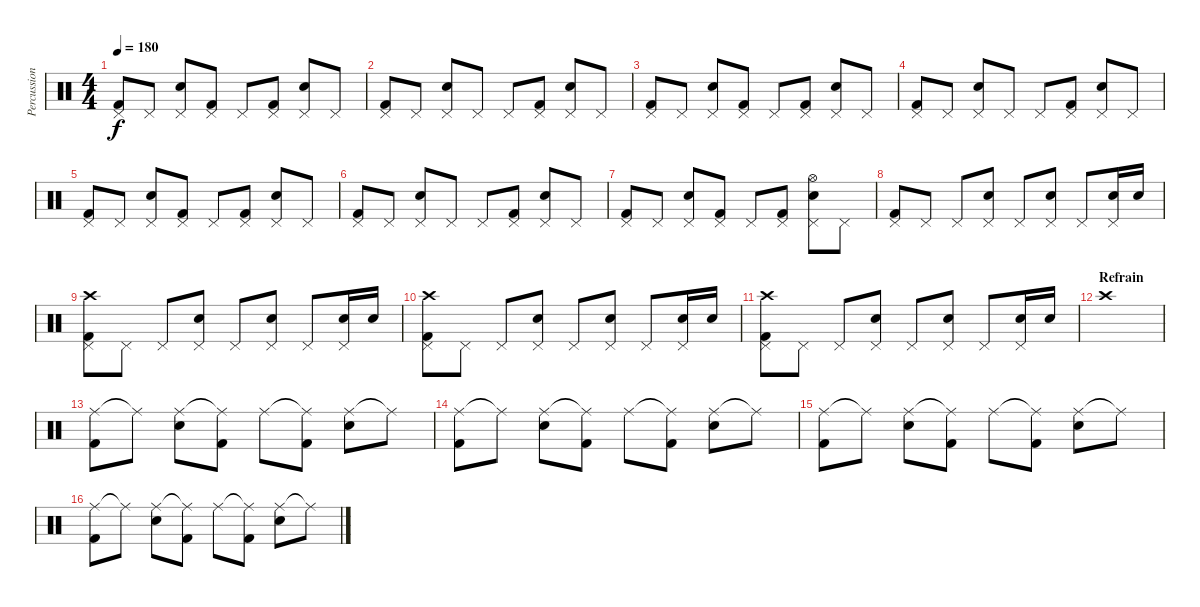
\track ("Percussions" "Percussion") {instrument percussion}
\staff {score}
\articulation defaults
\ts (4 4)
\tempo 180
\clef neutral
\ks c
("Pedal Hi-Hat (hit)" "Kick (hit) 2").8{dy f} "Pedal Hi-Hat (hit)".8 ("Pedal Hi-Hat (hit)" "Electric Snare (hit)").8 ("Pedal Hi-Hat (hit)" "Kick (hit) 2").8 "Pedal Hi-Hat (hit)".8 ("Pedal Hi-Hat (hit)" "Kick (hit) 2").8 ("Pedal Hi-Hat (hit)" "Electric Snare (hit)").8 "Pedal Hi-Hat (hit)".8 |
("Pedal Hi-Hat (hit)" "Kick (hit) 2").8 "Pedal Hi-Hat (hit)".8 ("Pedal Hi-Hat (hit)" "Electric Snare (hit)").8 "Pedal Hi-Hat (hit)".8 "Pedal Hi-Hat (hit)".8 ("Pedal Hi-Hat (hit)" "Kick (hit) 2").8 ("Pedal Hi-Hat (hit)" "Electric Snare (hit)").8 "Pedal Hi-Hat (hit)".8 |
("Pedal Hi-Hat (hit)" "Kick (hit) 2").8 "Pedal Hi-Hat (hit)".8 ("Pedal Hi-Hat (hit)" "Electric Snare (hit)").8 ("Pedal Hi-Hat (hit)" "Kick (hit) 2").8 "Pedal Hi-Hat (hit)".8 ("Pedal Hi-Hat (hit)" "Kick (hit) 2").8 ("Pedal Hi-Hat (hit)" "Electric Snare (hit)").8 "Pedal Hi-Hat (hit)".8 |
("Pedal Hi-Hat (hit)" "Kick (hit) 2").8 "Pedal Hi-Hat (hit)".8 ("Pedal Hi-Hat (hit)" "Electric Snare (hit)").8 "Pedal Hi-Hat (hit)".8 "Pedal Hi-Hat (hit)".8 ("Pedal Hi-Hat (hit)" "Kick (hit) 2").8 ("Pedal Hi-Hat (hit)" "Electric Snare (hit)").8 "Pedal Hi-Hat (hit)".8 |
("Pedal Hi-Hat (hit)" "Kick (hit) 2").8 "Pedal Hi-Hat (hit)".8 ("Pedal Hi-Hat (hit)" "Electric Snare (hit)").8 ("Pedal Hi-Hat (hit)" "Kick (hit) 2").8 "Pedal Hi-Hat (hit)".8 ("Pedal Hi-Hat (hit)" "Kick (hit) 2").8 ("Pedal Hi-Hat (hit)" "Electric Snare (hit)").8 "Pedal Hi-Hat (hit)".8 |
("Pedal Hi-Hat (hit)" "Kick (hit) 2").8 "Pedal Hi-Hat (hit)".8 ("Pedal Hi-Hat (hit)" "Electric Snare (hit)").8 "Pedal Hi-Hat (hit)".8 "Pedal Hi-Hat (hit)".8 ("Pedal Hi-Hat (hit)" "Kick (hit) 2").8 ("Pedal Hi-Hat (hit)" "Electric Snare (hit)").8 "Pedal Hi-Hat (hit)".8 |
("Pedal Hi-Hat (hit)" "Kick (hit) 2").8 "Pedal Hi-Hat (hit)".8 ("Pedal Hi-Hat (hit)" "Electric Snare (hit)").8 ("Pedal Hi-Hat (hit)" "Kick (hit) 2").8 "Pedal Hi-Hat (hit)".8 ("Pedal Hi-Hat (hit)" "Kick (hit) 2").8 ("Pedal Hi-Hat (hit)" "Hi-Hat (open)" "Electric Snare (hit)").8 "Pedal Hi-Hat (hit)".8 |
("Pedal Hi-Hat (hit)" "Kick (hit) 2").8 "Pedal Hi-Hat (hit)".8 "Pedal Hi-Hat (hit)".8 ("Pedal Hi-Hat (hit)" "Electric Snare (hit)").8 "Pedal Hi-Hat (hit)".8 ("Pedal Hi-Hat (hit)" "Electric Snare (hit)").8 "Pedal Hi-Hat (hit)".8 ("Pedal Hi-Hat (hit)" "Electric Snare (hit)").16 "Electric Snare (hit)".16 |
("Pedal Hi-Hat (hit)" "Crash high (hit)" "Kick (hit) 2").8 "Pedal Hi-Hat (hit)".8 "Pedal Hi-Hat (hit)".8 ("Pedal Hi-Hat (hit)" "Electric Snare (hit)").8 "Pedal Hi-Hat (hit)".8 ("Pedal Hi-Hat (hit)" "Electric Snare (hit)").8 "Pedal Hi-Hat (hit)".8 ("Pedal Hi-Hat (hit)" "Electric Snare (hit)").16 "Electric Snare (hit)".16 |
("Pedal Hi-Hat (hit)" "Crash high (hit)" "Kick (hit) 2").8 "Pedal Hi-Hat (hit)".8 "Pedal Hi-Hat (hit)".8 ("Pedal Hi-Hat (hit)" "Electric Snare (hit)").8 "Pedal Hi-Hat (hit)".8 ("Pedal Hi-Hat (hit)" "Electric Snare (hit)").8 "Pedal Hi-Hat (hit)".8 ("Pedal Hi-Hat (hit)" "Electric Snare (hit)").16 "Electric Snare (hit)".16 |
("Pedal Hi-Hat (hit)" "Crash high (hit)" "Kick (hit) 2").8 "Pedal Hi-Hat (hit)".8 "Pedal Hi-Hat (hit)".8 ("Pedal Hi-Hat (hit)" "Electric Snare (hit)").8 "Pedal Hi-Hat (hit)".8 ("Pedal Hi-Hat (hit)" "Electric Snare (hit)").8 "Pedal Hi-Hat (hit)".8 ("Pedal Hi-Hat (hit)" "Electric Snare (hit)").16 "Electric Snare (hit)".16 |
\section ("" "Refrain")
"Crash high (hit)".1 |
("Ride (middle)" "Kick (hit) 2").8 "Ride (middle)"{t}.8 ("Ride (middle)" "Electric Snare (hit)").8 ("Ride (middle)"{t} "Kick (hit) 2").8 "Ride (middle)".8 ("Ride (middle)"{t} "Kick (hit) 2").8 ("Ride (middle)" "Electric Snare (hit)").8 "Ride (middle)"{t}.8 |
("Ride (middle)" "Kick (hit) 2").8 "Ride (middle)"{t}.8 ("Ride (middle)" "Electric Snare (hit)").8 ("Ride (middle)"{t} "Kick (hit) 2").8 "Ride (middle)".8 ("Ride (middle)"{t} "Kick (hit) 2").8 ("Ride (middle)" "Electric Snare (hit)").8 "Ride (middle)"{t}.8 |
("Ride (middle)" "Kick (hit) 2").8 "Ride (middle)"{t}.8 ("Ride (middle)" "Electric Snare (hit)").8 ("Ride (middle)"{t} "Kick (hit) 2").8 "Ride (middle)".8 ("Ride (middle)"{t} "Kick (hit) 2").8 ("Ride (middle)" "Electric Snare (hit)").8 "Ride (middle)"{t}.8 |
("Ride (middle)" "Kick (hit) 2").8 "Ride (middle)"{t}.8 ("Ride (middle)" "Electric Snare (hit)").8 ("Ride (middle)"{t} "Kick (hit) 2").8 "Ride (middle)".8 ("Ride (middle)"{t} "Kick (hit) 2").8 ("Ride (middle)" "Electric Snare (hit)").8 "Ride (middle)"{t}.8
